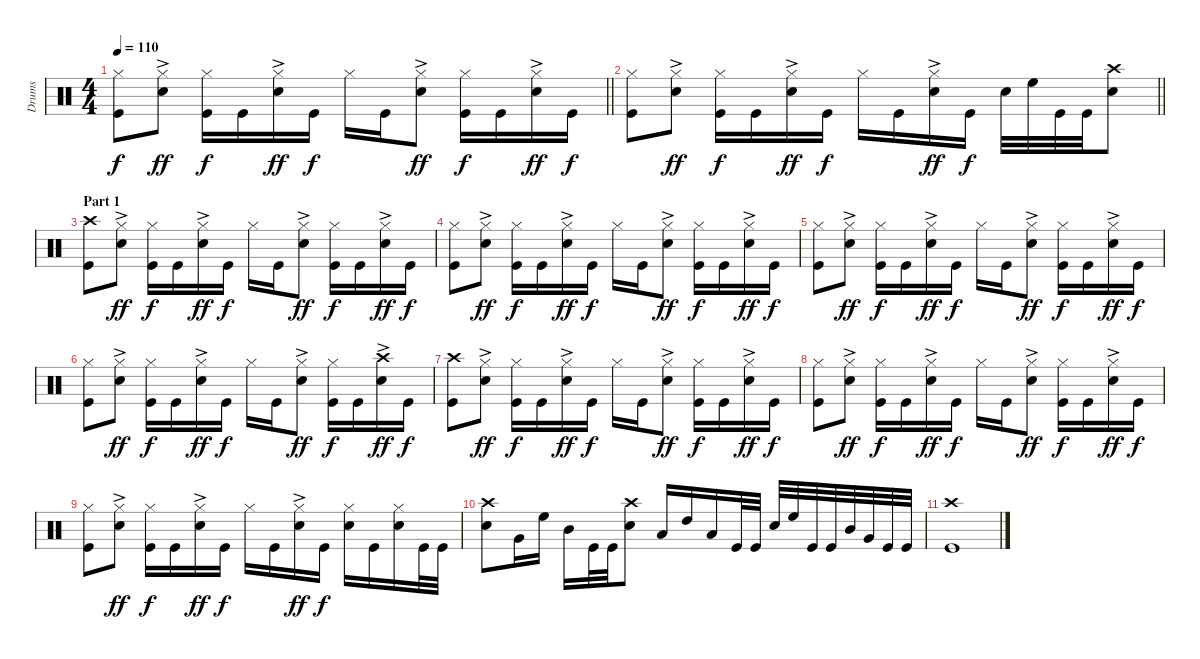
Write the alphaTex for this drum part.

\track ("Drums" "Drums") {instrument percussion}
\staff {score}
\articulation defaults
\ts (4 4)
\tempo 110
\clef neutral
\barLineRight lightlight
\ks c
("Kick (hit)" "Hi-Hat (closed)").8{dy f} ("Hi-Hat (closed)" "Electric Snare (hit)"{ac}).8{dy ff} ("Hi-Hat (closed)" "Kick (hit)").16{dy f} "Kick (hit)".16 ("Hi-Hat (closed)" "Electric Snare (hit)"{ac}).16{dy ff} "Kick (hit)".16{dy f} "Hi-Hat (closed)".16 "Kick (hit)".16 ("Electric Snare (hit)"{ac} "Hi-Hat (closed)").8{dy ff} ("Kick (hit)" "Hi-Hat (closed)").16{dy f} "Kick (hit)".16 ("Electric Snare (hit)"{ac} "Hi-Hat (closed)").16{dy ff} "Kick (hit)".16{dy f} |
\barLineRight lightlight
("Kick (hit)" "Hi-Hat (closed)").8 ("Hi-Hat (closed)" "Electric Snare (hit)"{ac}).8{dy ff} ("Hi-Hat (closed)" "Kick (hit)").16{dy f} "Kick (hit)".16 ("Hi-Hat (closed)" "Electric Snare (hit)"{ac}).16{dy ff} "Kick (hit)".16{dy f} "Hi-Hat (closed)".16 "Kick (hit)".16 ("Electric Snare (hit)"{ac} "Hi-Hat (closed)").16{dy ff} "Kick (hit)".16{dy f} "Electric Snare (hit)".32 "High Floor Tom (hit)".32 "Kick (hit)".32 "Kick (hit)".32 ("Electric Snare (hit)" "Crash high (hit)").8 |
\section ("" "Part 1")
("Kick (hit)" "Crash high (hit)").8 ("Hi-Hat (closed)" "Electric Snare (hit)"{ac}).8{dy ff} ("Hi-Hat (closed)" "Kick (hit)").16{dy f} "Kick (hit)".16 ("Hi-Hat (closed)" "Electric Snare (hit)"{ac}).16{dy ff} "Kick (hit)".16{dy f} "Hi-Hat (closed)".16 "Kick (hit)".16 ("Electric Snare (hit)"{ac} "Hi-Hat (closed)").8{dy ff} ("Kick (hit)" "Hi-Hat (closed)").16{dy f} "Kick (hit)".16 ("Electric Snare (hit)"{ac} "Hi-Hat (closed)").16{dy ff} "Kick (hit)".16{dy f} |
("Kick (hit)" "Hi-Hat (closed)").8 ("Hi-Hat (closed)" "Electric Snare (hit)"{ac}).8{dy ff} ("Hi-Hat (closed)" "Kick (hit)").16{dy f} "Kick (hit)".16 ("Hi-Hat (closed)" "Electric Snare (hit)"{ac}).16{dy ff} "Kick (hit)".16{dy f} "Hi-Hat (closed)".16 "Kick (hit)".16 ("Electric Snare (hit)"{ac} "Hi-Hat (closed)").8{dy ff} ("Kick (hit)" "Hi-Hat (closed)").16{dy f} "Kick (hit)".16 ("Electric Snare (hit)"{ac} "Hi-Hat (closed)").16{dy ff} "Kick (hit)".16{dy f} |
("Kick (hit)" "Hi-Hat (closed)").8 ("Hi-Hat (closed)" "Electric Snare (hit)"{ac}).8{dy ff} ("Hi-Hat (closed)" "Kick (hit)").16{dy f} "Kick (hit)".16 ("Hi-Hat (closed)" "Electric Snare (hit)"{ac}).16{dy ff} "Kick (hit)".16{dy f} "Hi-Hat (closed)".16 "Kick (hit)".16 ("Electric Snare (hit)"{ac} "Hi-Hat (closed)").8{dy ff} ("Kick (hit)" "Hi-Hat (closed)").16{dy f} "Kick (hit)".16 ("Electric Snare (hit)"{ac} "Hi-Hat (closed)").16{dy ff} "Kick (hit)".16{dy f} |
("Kick (hit)" "Hi-Hat (closed)").8 ("Hi-Hat (closed)" "Electric Snare (hit)"{ac}).8{dy ff} ("Hi-Hat (closed)" "Kick (hit)").16{dy f} "Kick (hit)".16 ("Hi-Hat (closed)" "Electric Snare (hit)"{ac}).16{dy ff} "Kick (hit)".16{dy f} "Hi-Hat (closed)".16 "Kick (hit)".16 ("Electric Snare (hit)"{ac} "Hi-Hat (closed)").8{dy ff} ("Kick (hit)" "Hi-Hat (closed)").16{dy f} "Kick (hit)".16 ("Electric Snare (hit)"{ac} "Crash high (hit)").16{dy ff} "Kick (hit)".16{dy f} |
("Kick (hit)" "Crash high (hit)").8 ("Hi-Hat (closed)" "Electric Snare (hit)"{ac}).8{dy ff} ("Hi-Hat (closed)" "Kick (hit)").16{dy f} "Kick (hit)".16 ("Hi-Hat (closed)" "Electric Snare (hit)"{ac}).16{dy ff} "Kick (hit)".16{dy f} "Hi-Hat (closed)".16 "Kick (hit)".16 ("Electric Snare (hit)"{ac} "Hi-Hat (closed)").8{dy ff} ("Kick (hit)" "Hi-Hat (closed)").16{dy f} "Kick (hit)".16 ("Electric Snare (hit)"{ac} "Hi-Hat (closed)").16{dy ff} "Kick (hit)".16{dy f} |
("Kick (hit)" "Hi-Hat (closed)").8 ("Hi-Hat (closed)" "Electric Snare (hit)"{ac}).8{dy ff} ("Hi-Hat (closed)" "Kick (hit)").16{dy f} "Kick (hit)".16 ("Hi-Hat (closed)" "Electric Snare (hit)"{ac}).16{dy ff} "Kick (hit)".16{dy f} "Hi-Hat (closed)".16 "Kick (hit)".16 ("Electric Snare (hit)"{ac} "Hi-Hat (closed)").8{dy ff} ("Kick (hit)" "Hi-Hat (closed)").16{dy f} "Kick (hit)".16 ("Electric Snare (hit)"{ac} "Hi-Hat (closed)").16{dy ff} "Kick (hit)".16{dy f} |
("Kick (hit)" "Hi-Hat (closed)").8 ("Hi-Hat (closed)" "Electric Snare (hit)"{ac}).8{dy ff} ("Hi-Hat (closed)" "Kick (hit)").16{dy f} "Kick (hit)".16 ("Hi-Hat (closed)" "Electric Snare (hit)"{ac}).16{dy ff} "Kick (hit)".16{dy f} "Hi-Hat (closed)".16 "Kick (hit)".16 ("Electric Snare (hit)"{ac} "Hi-Hat (closed)").16{dy ff} "Kick (hit)".16{dy f} ("Hi-Hat (closed)" "Electric Snare (hit)").16 "Kick (hit)".16 ("Electric Snare (hit)" "Hi-Hat (closed)").16 "Kick (hit)".32 "Kick (hit)".32 |
("Crash high (hit)" "Electric Snare (hit)").8 "Very Low Tom (hit)".16 "High Floor Tom (hit)".16 "Mid Tom (hit)".16 "Kick (hit)".32 "Kick (hit)".32 ("Crash high (hit)" "Electric Snare (hit)").8 "Low Floor Tom (hit)".16 "High Tom (hit)".16 "Low Tom (hit)".16 "Kick (hit)".32 "Kick (hit)".32 "Electric Snare (hit)".32 "High Floor Tom (hit)".32 "Kick (hit)".32 "Kick (hit)".32 "Mid Tom (hit)".32 "Very Low Tom (hit)".32 "Kick (hit)".32 "Kick (hit)".32 |
("Crash high (hit)" "Kick (hit)").1
